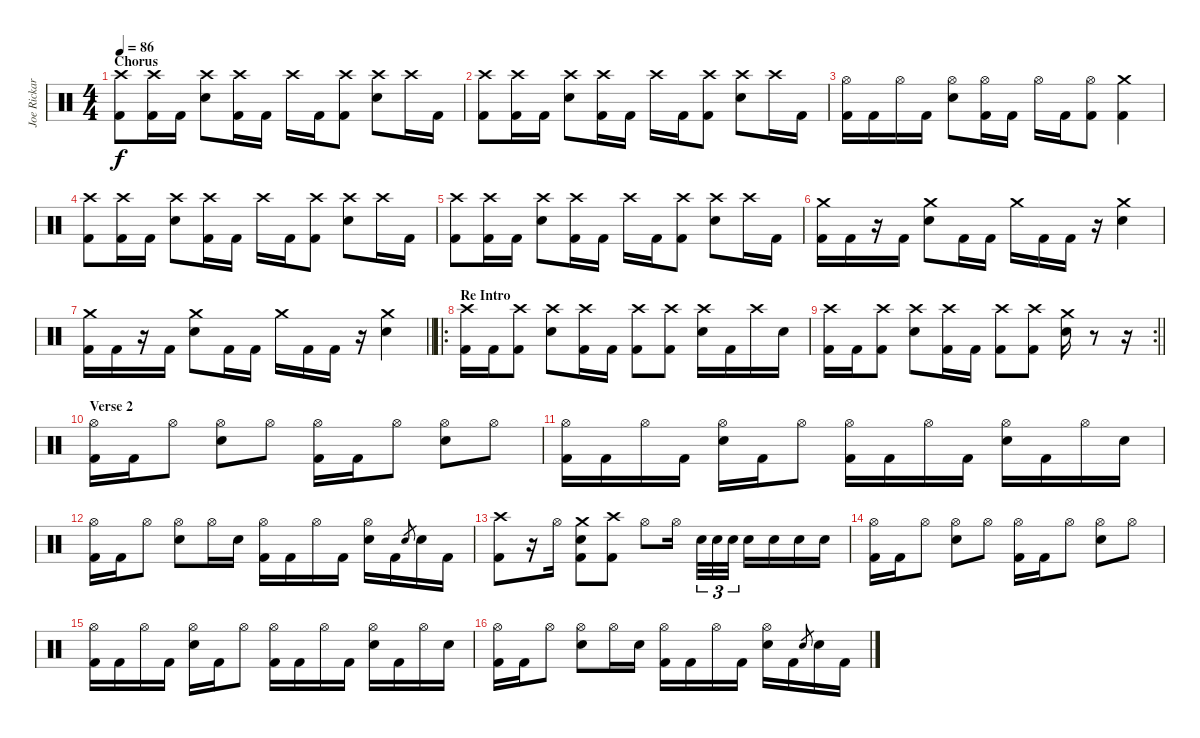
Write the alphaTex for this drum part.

\track ("Joe Rickard" "Joe Rickar") {instrument percussion}
\staff {score}
\articulation defaults
\ts (4 4)
\section ("" "Chorus")
\tempo 86
\clef neutral
\ks c
("Crash high (hit)" "Kick (hit) 2").8{dy f} ("Crash high (hit)" "Kick (hit) 2").16 "Kick (hit) 2".16 ("Crash high (hit)" "Electric Snare (hit)").8 ("Crash high (hit)" "Kick (hit) 2").16 "Kick (hit) 2".16 "Crash high (hit)".16 "Kick (hit) 2".16 ("Crash high (hit)" "Kick (hit) 2").8 ("Crash high (hit)" "Electric Snare (hit)").8 "Crash high (hit)".16 "Kick (hit) 2".16 |
("Crash high (hit)" "Kick (hit) 2").8 ("Crash high (hit)" "Kick (hit) 2").16 "Kick (hit) 2".16 ("Crash high (hit)" "Electric Snare (hit)").8 ("Crash high (hit)" "Kick (hit) 2").16 "Kick (hit) 2".16 "Crash high (hit)".16 "Kick (hit) 2".16 ("Crash high (hit)" "Kick (hit) 2").8 ("Crash high (hit)" "Electric Snare (hit)").8 "Crash high (hit)".16 "Kick (hit) 2".16 |
("Hi-Hat (open)" "Kick (hit) 2").16 "Kick (hit) 2".16 "Hi-Hat (open)".16 "Kick (hit) 2".16 ("Hi-Hat (open)" "Electric Snare (hit)").8 ("Hi-Hat (open)" "Kick (hit) 2").16 "Kick (hit) 2".16 "Hi-Hat (open)".16 "Kick (hit) 2".16 ("Hi-Hat (open)" "Kick (hit) 2").8 ("Crash medium (hit)" "Kick (hit) 2").4 |
("Crash high (hit)" "Kick (hit) 2").8 ("Crash high (hit)" "Kick (hit) 2").16 "Kick (hit) 2".16 ("Crash high (hit)" "Electric Snare (hit)").8 ("Crash high (hit)" "Kick (hit) 2").16 "Kick (hit) 2".16 "Crash high (hit)".16 "Kick (hit) 2".16 ("Crash high (hit)" "Kick (hit) 2").8 ("Crash high (hit)" "Electric Snare (hit)").8 "Crash high (hit)".16 "Kick (hit) 2".16 |
("Crash high (hit)" "Kick (hit) 2").8 ("Crash high (hit)" "Kick (hit) 2").16 "Kick (hit) 2".16 ("Crash high (hit)" "Electric Snare (hit)").8 ("Crash high (hit)" "Kick (hit) 2").16 "Kick (hit) 2".16 "Crash high (hit)".16 "Kick (hit) 2".16 ("Crash high (hit)" "Kick (hit) 2").8 ("Crash high (hit)" "Electric Snare (hit)").8 "Crash high (hit)".16 "Kick (hit) 2".16 |
("Crash medium (hit)" "Kick (hit) 2").16 "Kick (hit) 2".16 r.16 "Kick (hit) 2".16 ("Crash medium (hit)" "Electric Snare (hit)").8 "Kick (hit) 2".16 "Kick (hit) 2".16 "Crash medium (hit)".16 "Kick (hit) 2".16 "Kick (hit) 2".16 r.16 ("Crash medium (hit)" "Electric Snare (hit)").4 |
\barLineRight lightlight
("Crash medium (hit)" "Kick (hit) 2").16 "Kick (hit) 2".16 r.16 "Kick (hit) 2".16 ("Crash medium (hit)" "Electric Snare (hit)").8 "Kick (hit) 2".16 "Kick (hit) 2".16 "Crash medium (hit)".16 "Kick (hit) 2".16 "Kick (hit) 2".16 r.16 ("Crash medium (hit)" "Electric Snare (hit)").4 |
\ro
\section ("" "Re Intro")
("Crash high (hit)" "Kick (hit) 2").16 "Kick (hit) 2".16 ("Crash high (hit)" "Kick (hit) 2").8 ("Crash high (hit)" "Electric Snare (hit)").8 ("Crash high (hit)" "Kick (hit) 2").16 "Kick (hit) 2".16 ("Crash high (hit)" "Kick (hit) 2").8 ("Crash high (hit)" "Kick (hit) 2").8 ("Crash high (hit)" "Electric Snare (hit)").16 "Kick (hit) 2".16 "Crash high (hit)".16 "Electric Snare (hit)".16 |
\rc 2
\barLineRight lightlight
("Crash high (hit)" "Kick (hit) 2").16 "Kick (hit) 2".16 ("Crash high (hit)" "Kick (hit) 2").8 ("Crash high (hit)" "Electric Snare (hit)").8 ("Crash high (hit)" "Kick (hit) 2").16 "Kick (hit) 2".16 ("Crash high (hit)" "Kick (hit) 2").8 ("Crash high (hit)" "Kick (hit) 2").8 ("Crash medium (hit)" "Electric Snare (hit)").16 r.8 r.16 |
\section ("" "Verse 2")
("Hi-Hat (open)" "Kick (hit) 2").16 "Kick (hit) 2".16 "Hi-Hat (open)".8 ("Hi-Hat (open)" "Electric Snare (hit)").8 "Hi-Hat (open)".8 ("Hi-Hat (open)" "Kick (hit) 2").16 "Kick (hit) 2".16 "Hi-Hat (open)".8 ("Hi-Hat (open)" "Electric Snare (hit)").8 "Hi-Hat (open)".8 |
("Hi-Hat (open)" "Kick (hit) 2").16 "Kick (hit) 2".16 "Hi-Hat (open)".16 "Kick (hit) 2".16 ("Hi-Hat (open)" "Electric Snare (hit)").16 "Kick (hit) 2".16 "Hi-Hat (open)".8 ("Hi-Hat (open)" "Kick (hit) 2").16 "Kick (hit) 2".16 "Hi-Hat (open)".16 "Kick (hit) 2".16 ("Hi-Hat (open)" "Electric Snare (hit)").16 "Kick (hit) 2".16 "Hi-Hat (open)".16 "Electric Snare (hit)".16 |
("Hi-Hat (open)" "Kick (hit) 2").16 "Kick (hit) 2".16 "Hi-Hat (open)".8 ("Hi-Hat (open)" "Electric Snare (hit)").8 "Hi-Hat (open)".16 "Electric Snare (hit)".16 ("Hi-Hat (open)" "Kick (hit) 2").16 "Kick (hit) 2".16 "Hi-Hat (open)".16 "Kick (hit) 2".16 ("Hi-Hat (open)" "Electric Snare (hit)").16 "Kick (hit) 2".16 "Electric Snare (hit)".8{gr} "Electric Snare (hit)".16 "Kick (hit) 2".16 |
("Crash high (hit)" "Kick (hit) 2").8 r.16 "Hi-Hat (open)".16 ("Crash medium (hit)" "Electric Snare (hit)" "Kick (hit) 2").8 ("Crash high (hit)" "Kick (hit) 2").8 "Hi-Hat (open)".8 "Hi-Hat (open)".16{beam splitsecondary} "Electric Snare (hit)".32{tu (3 2)} "Electric Snare (hit)".32{tu (3 2)} "Electric Snare (hit)".32{tu (3 2)} "Electric Snare (hit)".16 "Electric Snare (hit)".16 "Electric Snare (hit)".16 "Electric Snare (hit)".16 |
("Hi-Hat (open)" "Kick (hit) 2").16 "Kick (hit) 2".16 "Hi-Hat (open)".8 ("Hi-Hat (open)" "Electric Snare (hit)").8 "Hi-Hat (open)".8 ("Hi-Hat (open)" "Kick (hit) 2").16 "Kick (hit) 2".16 "Hi-Hat (open)".8 ("Hi-Hat (open)" "Electric Snare (hit)").8 "Hi-Hat (open)".8 |
("Hi-Hat (open)" "Kick (hit) 2").16 "Kick (hit) 2".16 "Hi-Hat (open)".16 "Kick (hit) 2".16 ("Hi-Hat (open)" "Electric Snare (hit)").16 "Kick (hit) 2".16 "Hi-Hat (open)".8 ("Hi-Hat (open)" "Kick (hit) 2").16 "Kick (hit) 2".16 "Hi-Hat (open)".16 "Kick (hit) 2".16 ("Hi-Hat (open)" "Electric Snare (hit)").16 "Kick (hit) 2".16 "Hi-Hat (open)".16 "Electric Snare (hit)".16 |
("Hi-Hat (open)" "Kick (hit) 2").16 "Kick (hit) 2".16 "Hi-Hat (open)".8 ("Hi-Hat (open)" "Electric Snare (hit)").8 "Hi-Hat (open)".16 "Electric Snare (hit)".16 ("Hi-Hat (open)" "Kick (hit) 2").16 "Kick (hit) 2".16 "Hi-Hat (open)".16 "Kick (hit) 2".16 ("Hi-Hat (open)" "Electric Snare (hit)").16 "Kick (hit) 2".16 "Electric Snare (hit)".8{gr} "Electric Snare (hit)".16 "Kick (hit) 2".16
